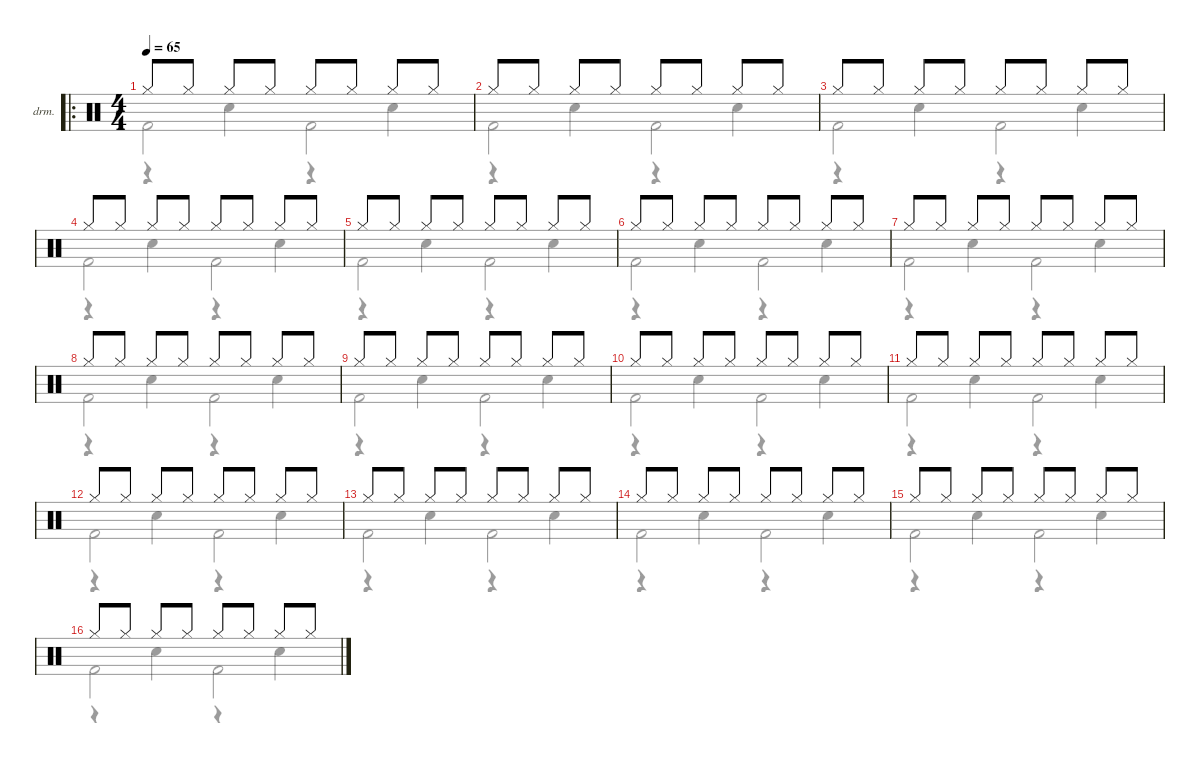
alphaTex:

\defaultSystemsLayout 4
\hideDynamics
\bracketExtendMode nobrackets
\firstSystemTrackNameOrientation horizontal
\otherSystemsTrackNameOrientation horizontal
\track ("Drumkit" "drm.") {defaultSystemsLayout 4 instrument percussion}
\staff {score}
\articulation defaults
\voice
\ro
\ts (4 4)
\tempo 65
\clef neutral
\scale
1.15458
\ks c "Hi-Hat (closed)".8{dy ff beam Up} "Hi-Hat (closed)".8{beam Up} "Hi-Hat (closed)".8{beam Up} "Hi-Hat (closed)".8{beam Up} "Hi-Hat (closed)".8{beam Up} "Hi-Hat (closed)".8{beam Up} "Hi-Hat (closed)".8{beam Up} "Hi-Hat (closed)".8{beam Up}
|
\scale
0.948474 "Hi-Hat (closed)".8{beam Up} "Hi-Hat (closed)".8{beam Up} "Hi-Hat (closed)".8{beam Up} "Hi-Hat (closed)".8{beam Up} "Hi-Hat (closed)".8{beam Up} "Hi-Hat (closed)".8{beam Up} "Hi-Hat (closed)".8{beam Up} "Hi-Hat (closed)".8{beam Up} |
\scale
0.948474 "Hi-Hat (closed)".8{beam Up} "Hi-Hat (closed)".8{beam Up} "Hi-Hat (closed)".8{beam Up} "Hi-Hat (closed)".8{beam Up} "Hi-Hat (closed)".8{beam Up} "Hi-Hat (closed)".8{beam Up} "Hi-Hat (closed)".8{beam Up} "Hi-Hat (closed)".8{beam Up} |
\scale
0.948474 "Hi-Hat (closed)".8{beam Up} "Hi-Hat (closed)".8{beam Up} "Hi-Hat (closed)".8{beam Up} "Hi-Hat (closed)".8{beam Up} "Hi-Hat (closed)".8{beam Up} "Hi-Hat (closed)".8{beam Up} "Hi-Hat (closed)".8{beam Up} "Hi-Hat (closed)".8{beam Up} |
\scale
1.06363 "Hi-Hat (closed)".8{beam Up} "Hi-Hat (closed)".8{beam Up} "Hi-Hat (closed)".8{beam Up} "Hi-Hat (closed)".8{beam Up} "Hi-Hat (closed)".8{beam Up} "Hi-Hat (closed)".8{beam Up} "Hi-Hat (closed)".8{beam Up} "Hi-Hat (closed)".8{beam Up} |
\scale
0.97879 "Hi-Hat (closed)".8{beam Up} "Hi-Hat (closed)".8{beam Up} "Hi-Hat (closed)".8{beam Up} "Hi-Hat (closed)".8{beam Up} "Hi-Hat (closed)".8{beam Up} "Hi-Hat (closed)".8{beam Up} "Hi-Hat (closed)".8{beam Up} "Hi-Hat (closed)".8{beam Up} |
\scale
0.97879 "Hi-Hat (closed)".8{beam Up} "Hi-Hat (closed)".8{beam Up} "Hi-Hat (closed)".8{beam Up} "Hi-Hat (closed)".8{beam Up} "Hi-Hat (closed)".8{beam Up} "Hi-Hat (closed)".8{beam Up} "Hi-Hat (closed)".8{beam Up} "Hi-Hat (closed)".8{beam Up} |
\scale
0.97879 "Hi-Hat (closed)".8{beam Up} "Hi-Hat (closed)".8{beam Up} "Hi-Hat (closed)".8{beam Up} "Hi-Hat (closed)".8{beam Up} "Hi-Hat (closed)".8{beam Up} "Hi-Hat (closed)".8{beam Up} "Hi-Hat (closed)".8{beam Up} "Hi-Hat (closed)".8{beam Up} |
\scale
1.06363 "Hi-Hat (closed)".8{beam Up} "Hi-Hat (closed)".8{beam Up} "Hi-Hat (closed)".8{beam Up} "Hi-Hat (closed)".8{beam Up} "Hi-Hat (closed)".8{beam Up} "Hi-Hat (closed)".8{beam Up} "Hi-Hat (closed)".8{beam Up} "Hi-Hat (closed)".8{beam Up} |
\scale
0.97879 "Hi-Hat (closed)".8{beam Up} "Hi-Hat (closed)".8{beam Up} "Hi-Hat (closed)".8{beam Up} "Hi-Hat (closed)".8{beam Up} "Hi-Hat (closed)".8{beam Up} "Hi-Hat (closed)".8{beam Up} "Hi-Hat (closed)".8{beam Up} "Hi-Hat (closed)".8{beam Up} |
\scale
0.97879 "Hi-Hat (closed)".8{beam Up} "Hi-Hat (closed)".8{beam Up} "Hi-Hat (closed)".8{beam Up} "Hi-Hat (closed)".8{beam Up} "Hi-Hat (closed)".8{beam Up} "Hi-Hat (closed)".8{beam Up} "Hi-Hat (closed)".8{beam Up} "Hi-Hat (closed)".8{beam Up} |
\scale
0.97879 "Hi-Hat (closed)".8{beam Up} "Hi-Hat (closed)".8{beam Up} "Hi-Hat (closed)".8{beam Up} "Hi-Hat (closed)".8{beam Up} "Hi-Hat (closed)".8{beam Up} "Hi-Hat (closed)".8{beam Up} "Hi-Hat (closed)".8{beam Up} "Hi-Hat (closed)".8{beam Up} |
\scale
1.06363 "Hi-Hat (closed)".8{beam Up} "Hi-Hat (closed)".8{beam Up} "Hi-Hat (closed)".8{beam Up} "Hi-Hat (closed)".8{beam Up} "Hi-Hat (closed)".8{beam Up} "Hi-Hat (closed)".8{beam Up} "Hi-Hat (closed)".8{beam Up} "Hi-Hat (closed)".8{beam Up} |
\scale
0.97879 "Hi-Hat (closed)".8{beam Up} "Hi-Hat (closed)".8{beam Up} "Hi-Hat (closed)".8{beam Up} "Hi-Hat (closed)".8{beam Up} "Hi-Hat (closed)".8{beam Up} "Hi-Hat (closed)".8{beam Up} "Hi-Hat (closed)".8{beam Up} "Hi-Hat (closed)".8{beam Up} |
\scale
0.97879 "Hi-Hat (closed)".8{beam Up} "Hi-Hat (closed)".8{beam Up} "Hi-Hat (closed)".8{beam Up} "Hi-Hat (closed)".8{beam Up} "Hi-Hat (closed)".8{beam Up} "Hi-Hat (closed)".8{beam Up} "Hi-Hat (closed)".8{beam Up} "Hi-Hat (closed)".8{beam Up} |
\scale
0.97879 "Hi-Hat (closed)".8{beam Up} "Hi-Hat (closed)".8{beam Up} "Hi-Hat (closed)".8{beam Up} "Hi-Hat (closed)".8{beam Up} "Hi-Hat (closed)".8{beam Up} "Hi-Hat (closed)".8{beam Up} "Hi-Hat (closed)".8{beam Up} "Hi-Hat (closed)".8{beam Up}
\voice
\clef neutral
\ottava regular
\simile none
\scale
1.15458
\ks c "Kick (hit) 2".2{dy p beam Down} "Kick (hit) 2".2{beam Down}
|
\scale
0.948474 "Kick (hit) 2".2{beam Down} "Kick (hit) 2".2{beam Down} |
\scale
0.948474 "Kick (hit) 2".2{beam Down} "Kick (hit) 2".2{beam Down} |
\scale
0.948474 "Kick (hit) 2".2{beam Down} "Kick (hit) 2".2{beam Down} |
\scale
1.06363 "Kick (hit) 2".2{beam Down} "Kick (hit) 2".2{beam Down} |
\scale
0.97879 "Kick (hit) 2".2{beam Down} "Kick (hit) 2".2{beam Down} |
\scale
0.97879 "Kick (hit) 2".2{beam Down} "Kick (hit) 2".2{beam Down} |
\scale
0.97879 "Kick (hit) 2".2{beam Down} "Kick (hit) 2".2{beam Down} |
\scale
1.06363 "Kick (hit) 2".2{beam Down} "Kick (hit) 2".2{beam Down} |
\scale
0.97879 "Kick (hit) 2".2{beam Down} "Kick (hit) 2".2{beam Down} |
\scale
0.97879 "Kick (hit) 2".2{beam Down} "Kick (hit) 2".2{beam Down} |
\scale
0.97879 "Kick (hit) 2".2{beam Down} "Kick (hit) 2".2{beam Down} |
\scale
1.06363 "Kick (hit) 2".2{beam Down} "Kick (hit) 2".2{beam Down} |
\scale
0.97879 "Kick (hit) 2".2{beam Down} "Kick (hit) 2".2{beam Down} |
\scale
0.97879 "Kick (hit) 2".2{beam Down} "Kick (hit) 2".2{beam Down} |
\scale
0.97879 "Kick (hit) 2".2{beam Down} "Kick (hit) 2".2{beam Down}
\voice
\clef neutral
\ottava regular
\simile none
\scale
1.15458
\ks c
r.4{dy mp beam Down} "Snare (hit) 2".4{beam Down} r.4{beam Down} "Snare (hit) 2".4{beam Down} |
\scale
0.948474 r.4{beam Down} "Snare (hit) 2".4{beam Down} r.4{beam Down} "Snare (hit) 2".4{beam Down} |
\scale
0.948474 r.4{beam Down} "Snare (hit) 2".4{beam Down} r.4{beam Down} "Snare (hit) 2".4{beam Down} |
\scale
0.948474 r.4{beam Down} "Snare (hit) 2".4{beam Down} r.4{beam Down} "Snare (hit) 2".4{beam Down} |
\scale
1.06363 r.4{beam Down} "Snare (hit) 2".4{beam Down} r.4{beam Down} "Snare (hit) 2".4{beam Down} |
\scale
0.97879 r.4{beam Down} "Snare (hit) 2".4{beam Down} r.4{beam Down} "Snare (hit) 2".4{beam Down} |
\scale
0.97879 r.4{beam Down} "Snare (hit) 2".4{beam Down} r.4{beam Down} "Snare (hit) 2".4{beam Down} |
\scale
0.97879 r.4{beam Down} "Snare (hit) 2".4{beam Down} r.4{beam Down} "Snare (hit) 2".4{beam Down} |
\scale
1.06363 r.4{beam Down} "Snare (hit) 2".4{beam Down} r.4{beam Down} "Snare (hit) 2".4{beam Down} |
\scale
0.97879 r.4{beam Down} "Snare (hit) 2".4{beam Down} r.4{beam Down} "Snare (hit) 2".4{beam Down} |
\scale
0.97879 r.4{beam Down} "Snare (hit) 2".4{beam Down} r.4{beam Down} "Snare (hit) 2".4{beam Down} |
\scale
0.97879 r.4{beam Down} "Snare (hit) 2".4{beam Down} r.4{beam Down} "Snare (hit) 2".4{beam Down} |
\scale
1.06363 r.4{beam Down} "Snare (hit) 2".4{beam Down} r.4{beam Down} "Snare (hit) 2".4{beam Down} |
\scale
0.97879 r.4{beam Down} "Snare (hit) 2".4{beam Down} r.4{beam Down} "Snare (hit) 2".4{beam Down} |
\scale
0.97879 r.4{beam Down} "Snare (hit) 2".4{beam Down} r.4{beam Down} "Snare (hit) 2".4{beam Down} |
\scale
0.97879 r.4{beam Down} "Snare (hit) 2".4{beam Down} r.4{beam Down} "Snare (hit) 2".4{beam Down}
